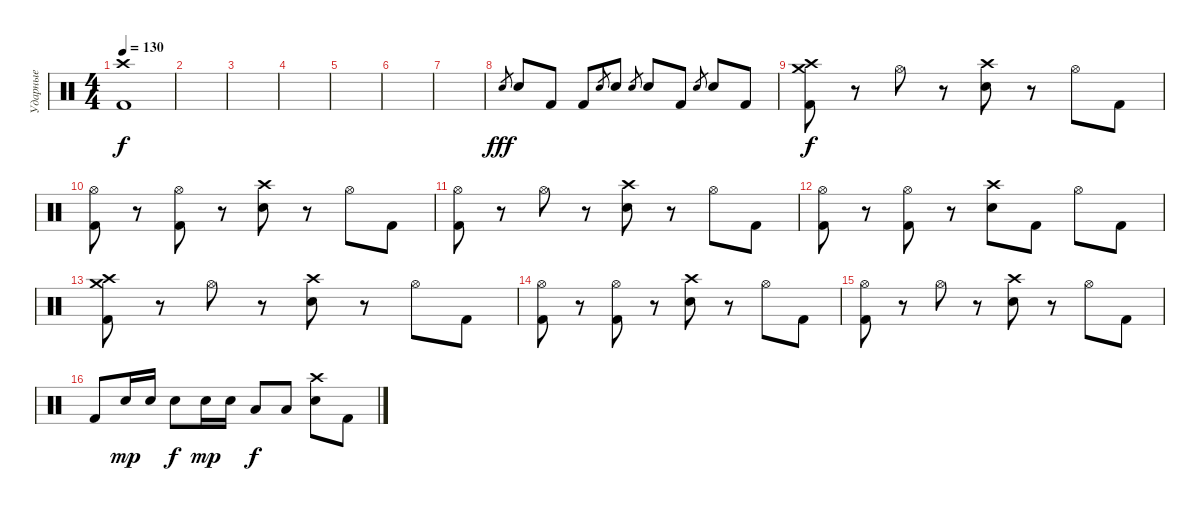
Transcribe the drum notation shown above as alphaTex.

\track ("Ударные" "Ударные") {instrument percussion}
\staff {score}
\articulation defaults
\ts (4 4)
\tempo 130
\clef neutral
\ks c
("Crash high (hit)" "Kick (hit) 2").1{dy f} |
|
|
|
|
|
|
"Electric Snare (hit)".8{gr dy fff} "Electric Snare (hit)".8 "Kick (hit) 2".8 "Kick (hit) 2".8 "Electric Snare (hit)".8{gr} "Electric Snare (hit)".8 "Electric Snare (hit)".8{gr} "Electric Snare (hit)".8 "Kick (hit) 2".8 "Electric Snare (hit)".8{gr} "Electric Snare (hit)".8 "Kick (hit) 2".8 |
("Crash medium (hit)" "Crash high (hit)" "Kick (hit) 2").8{dy f} r.8 "Hi-Hat (open)".8 r.8 ("Crash high (hit)" "Electric Snare (hit)").8 r.8 "Hi-Hat (open)".8 "Kick (hit) 2".8 |
("Hi-Hat (open)" "Kick (hit) 2").8 r.8 ("Hi-Hat (open)" "Kick (hit) 2").8 r.8 ("Crash high (hit)" "Electric Snare (hit)").8 r.8 "Hi-Hat (open)".8 "Kick (hit) 2".8 |
("Hi-Hat (open)" "Kick (hit) 2").8 r.8 "Hi-Hat (open)".8 r.8 ("Crash high (hit)" "Electric Snare (hit)").8 r.8 "Hi-Hat (open)".8 "Kick (hit) 2".8 |
("Hi-Hat (open)" "Kick (hit) 2").8 r.8 ("Hi-Hat (open)" "Kick (hit) 2").8 r.8 ("Crash high (hit)" "Electric Snare (hit)").8 "Kick (hit) 2".8 "Hi-Hat (open)".8 "Kick (hit) 2".8 |
("Crash medium (hit)" "Crash high (hit)" "Kick (hit) 2").8 r.8 "Hi-Hat (open)".8 r.8 ("Crash high (hit)" "Electric Snare (hit)").8 r.8 "Hi-Hat (open)".8 "Kick (hit) 2".8 |
("Hi-Hat (open)" "Kick (hit) 2").8 r.8 ("Hi-Hat (open)" "Kick (hit) 2").8 r.8 ("Crash high (hit)" "Electric Snare (hit)").8 r.8 "Hi-Hat (open)".8 "Kick (hit) 2".8 |
("Hi-Hat (open)" "Kick (hit) 2").8 r.8 "Hi-Hat (open)".8 r.8 ("Crash high (hit)" "Electric Snare (hit)").8 r.8 "Hi-Hat (open)".8 "Kick (hit) 2".8 |
"Kick (hit) 2".8 "Electric Snare (hit)".16{dy mp} "Electric Snare (hit)".16 "Electric Snare (hit)".8{dy f} "Electric Snare (hit)".16{dy mp} "Electric Snare (hit)".16 "Low Tom (hit)".8{dy f} "Low Tom (hit)".8 ("Crash high (hit)" "Electric Snare (hit)").8 "Kick (hit) 2".8
